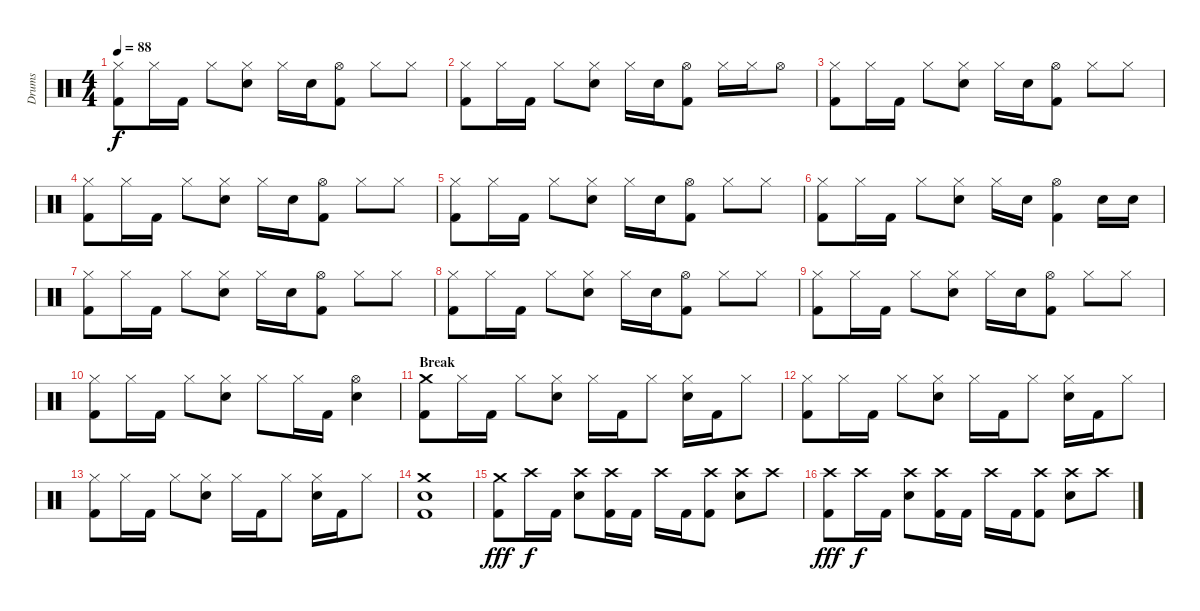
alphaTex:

\track ("Drums" "Drums") {instrument percussion}
\staff {score}
\articulation defaults
\ts (4 4)
\tempo 88
\clef neutral
\ks c
("Hi-Hat (closed)" "Kick (hit) 2").8{dy f} "Hi-Hat (closed)".16 "Kick (hit) 2".16 "Hi-Hat (closed)".8 ("Hi-Hat (closed)" "Electric Snare (hit)").8 "Hi-Hat (closed)".16 "Electric Snare (hit)".16 ("Hi-Hat (open)" "Kick (hit) 2").8 "Hi-Hat (closed)".8 "Hi-Hat (closed)".8 |
("Hi-Hat (closed)" "Kick (hit) 2").8 "Hi-Hat (closed)".16 "Kick (hit) 2".16 "Hi-Hat (closed)".8 ("Hi-Hat (closed)" "Electric Snare (hit)").8 "Hi-Hat (closed)".16 "Electric Snare (hit)".16 ("Hi-Hat (open)" "Kick (hit) 2").8 "Hi-Hat (closed)".16 "Hi-Hat (closed)".16 "Hi-Hat (open)".8 |
("Hi-Hat (closed)" "Kick (hit) 2").8 "Hi-Hat (closed)".16 "Kick (hit) 2".16 "Hi-Hat (closed)".8 ("Hi-Hat (closed)" "Electric Snare (hit)").8 "Hi-Hat (closed)".16 "Electric Snare (hit)".16 ("Hi-Hat (open)" "Kick (hit) 2").8 "Hi-Hat (closed)".8 "Hi-Hat (closed)".8 |
("Hi-Hat (closed)" "Kick (hit) 2").8 "Hi-Hat (closed)".16 "Kick (hit) 2".16 "Hi-Hat (closed)".8 ("Hi-Hat (closed)" "Electric Snare (hit)").8 "Hi-Hat (closed)".16 "Electric Snare (hit)".16 ("Hi-Hat (open)" "Kick (hit) 2").8 "Hi-Hat (closed)".8 "Hi-Hat (closed)".8 |
("Hi-Hat (closed)" "Kick (hit) 2").8 "Hi-Hat (closed)".16 "Kick (hit) 2".16 "Hi-Hat (closed)".8 ("Hi-Hat (closed)" "Electric Snare (hit)").8 "Hi-Hat (closed)".16 "Electric Snare (hit)".16 ("Hi-Hat (open)" "Kick (hit) 2").8 "Hi-Hat (closed)".8 "Hi-Hat (closed)".8 |
("Hi-Hat (closed)" "Kick (hit) 2").8 "Hi-Hat (closed)".16 "Kick (hit) 2".16 "Hi-Hat (closed)".8 ("Hi-Hat (closed)" "Electric Snare (hit)").8 "Hi-Hat (closed)".16 "Electric Snare (hit)".16 ("Hi-Hat (open)" "Kick (hit) 2").4 "Electric Snare (hit)".16 "Electric Snare (hit)".16 |
("Hi-Hat (closed)" "Kick (hit) 2").8 "Hi-Hat (closed)".16 "Kick (hit) 2".16 "Hi-Hat (closed)".8 ("Hi-Hat (closed)" "Electric Snare (hit)").8 "Hi-Hat (closed)".16 "Electric Snare (hit)".16 ("Hi-Hat (open)" "Kick (hit) 2").8 "Hi-Hat (closed)".8 "Hi-Hat (closed)".8 |
("Hi-Hat (closed)" "Kick (hit) 2").8 "Hi-Hat (closed)".16 "Kick (hit) 2".16 "Hi-Hat (closed)".8 ("Hi-Hat (closed)" "Electric Snare (hit)").8 "Hi-Hat (closed)".16 "Electric Snare (hit)".16 ("Hi-Hat (open)" "Kick (hit) 2").8 "Hi-Hat (closed)".8 "Hi-Hat (closed)".8 |
("Hi-Hat (closed)" "Kick (hit) 2").8 "Hi-Hat (closed)".16 "Kick (hit) 2".16 "Hi-Hat (closed)".8 ("Hi-Hat (closed)" "Electric Snare (hit)").8 "Hi-Hat (closed)".16 "Electric Snare (hit)".16 ("Hi-Hat (open)" "Kick (hit) 2").8 "Hi-Hat (closed)".8 "Hi-Hat (closed)".8 |
("Hi-Hat (closed)" "Kick (hit) 2").8 "Hi-Hat (closed)".16 "Kick (hit) 2".16 "Hi-Hat (closed)".8 ("Hi-Hat (closed)" "Electric Snare (hit)").8 "Hi-Hat (closed)".8 "Hi-Hat (closed)".16 "Kick (hit) 2".16 ("Hi-Hat (open)" "Electric Snare (hit)").4 |
\section ("" "Break")
("Crash medium (hit)" "Kick (hit) 2").8 "Hi-Hat (closed)".16 "Kick (hit) 2".16 "Hi-Hat (closed)".8 ("Hi-Hat (closed)" "Electric Snare (hit)").8 "Hi-Hat (closed)".16 "Kick (hit) 2".16 "Hi-Hat (closed)".8 ("Hi-Hat (closed)" "Electric Snare (hit)").16 "Kick (hit) 2".16 "Hi-Hat (closed)".8 |
("Hi-Hat (closed)" "Kick (hit) 2").8 "Hi-Hat (closed)".16 "Kick (hit) 2".16 "Hi-Hat (closed)".8 ("Hi-Hat (closed)" "Electric Snare (hit)").8 "Hi-Hat (closed)".16 "Kick (hit) 2".16 "Hi-Hat (closed)".8 ("Hi-Hat (closed)" "Electric Snare (hit)").16 "Kick (hit) 2".16 "Hi-Hat (closed)".8 |
("Hi-Hat (closed)" "Kick (hit) 2").8 "Hi-Hat (closed)".16 "Kick (hit) 2".16 "Hi-Hat (closed)".8 ("Hi-Hat (closed)" "Electric Snare (hit)").8 "Hi-Hat (closed)".16 "Kick (hit) 2".16 "Hi-Hat (closed)".8 ("Hi-Hat (closed)" "Electric Snare (hit)").16 "Kick (hit) 2".16 "Hi-Hat (closed)".8 |
("Crash medium (hit)" "Electric Snare (hit)" "Kick (hit) 2").1 |
("Crash medium (hit)" "Kick (hit) 2").8{dy fff} "Crash high (hit)".16{dy f} "Kick (hit) 2".16 ("Crash high (hit)" "Electric Snare (hit)").8 ("Crash high (hit)" "Kick (hit) 2").16 "Kick (hit) 2".16 "Crash high (hit)".16 "Kick (hit) 2".16 ("Crash high (hit)" "Kick (hit) 2").8 ("Crash high (hit)" "Electric Snare (hit)").8 "Crash high (hit)".8 |
("Crash high (hit)" "Kick (hit) 2").8{dy fff} "Crash high (hit)".16{dy f} "Kick (hit) 2".16 ("Crash high (hit)" "Electric Snare (hit)").8 ("Crash high (hit)" "Kick (hit) 2").16 "Kick (hit) 2".16 "Crash high (hit)".16 "Kick (hit) 2".16 ("Crash high (hit)" "Kick (hit) 2").8 ("Crash high (hit)" "Electric Snare (hit)").8 "Crash high (hit)".8
